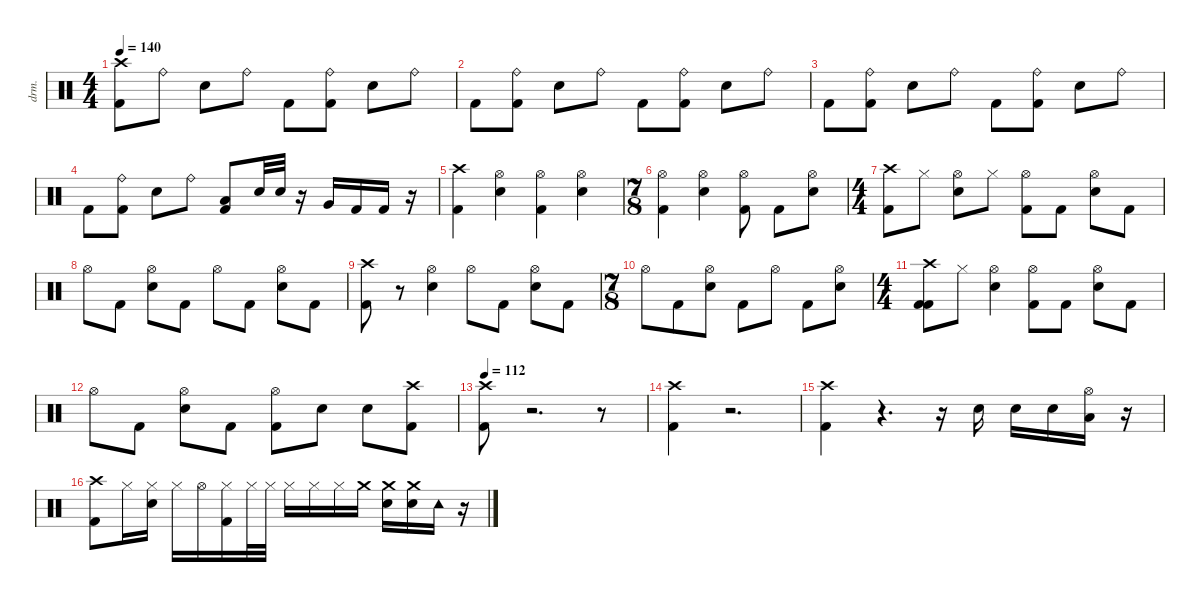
\defaultSystemsLayout 4
\hideDynamics
\bracketExtendMode nobrackets
\otherSystemsTrackNameOrientation horizontal
\track ("Drums" "drm.") {instrument percussion}
\staff {score}
\articulation defaults
\ts (4 4)
\beaming (8 2 2 2 2)
\tempo 140
\clef neutral
\ks c
("Kick (hit) 2" "Crash high (hit)").8{dy f beam Down} "Ride (bell)".8{beam Down} "Snare (hit) 2".8{beam Down} "Ride (bell)".8{beam Down} "Kick (hit) 2".8{beam Down} ("Ride (bell)" "Kick (hit) 2").8{beam Down} "Snare (hit) 2".8{beam Down} "Ride (bell)".8{beam Down} |
"Kick (hit) 2".8{beam Down} ("Ride (bell)" "Kick (hit) 2").8{beam Down} "Snare (hit) 2".8{beam Down} "Ride (bell)".8{beam Down} "Kick (hit) 2".8{beam Down} ("Ride (bell)" "Kick (hit) 2").8{beam Down} "Snare (hit) 2".8{beam Down} "Ride (bell)".8{beam Down} |
"Kick (hit) 2".8{beam Down} ("Kick (hit) 2" "Ride (bell)").8{beam Down} "Snare (hit) 2".8{beam Down} "Ride (bell)".8{beam Down} "Kick (hit) 2".8{beam Down} ("Ride (bell)" "Kick (hit) 2").8{beam Down} "Snare (hit) 2".8{beam Down} "Ride (bell)".8{beam Down} |
"Kick (hit) 2".8{beam Down} ("Kick (hit) 2" "Ride (bell)").8{beam Down} "Snare (hit) 2".8{beam Down} "Ride (bell)".8{beam Down} ("Low Tom (hit)" "Kick (hit) 2").8{beam Up} "Snare (hit) 2".32{beam Up} "Snare (hit) 2".32{beam Up} r.16{beam Up} "Very Low Tom (hit)".16{dy mp beam Up} "Kick (hit) 2".16{dy f beam Up} "Kick (hit) 2".16{beam Up} r.16{beam Up} |
("Crash high (hit)" "Kick (hit) 2").4{beam Down} ("Snare (hit) 2" "Hi-Hat (open)").4{beam Down} ("Kick (hit) 2" "Hi-Hat (open)").4{beam Down} ("Snare (hit) 2" "Hi-Hat (open)").4{beam Down} |
\ts (7 8)
\beaming (8 3 2 2)
("Kick (hit) 2" "Hi-Hat (open)").4{beam Down} ("Snare (hit) 2" "Hi-Hat (open)").4{beam Down} ("Hi-Hat (open)" "Kick (hit) 2").8{beam Down} "Kick (hit) 2".8{beam Down} ("Snare (hit) 2" "Hi-Hat (open)").8{beam Down} |
\ts (4 4)
\beaming (8 2 2 2 2)
("Kick (hit) 2" "Crash high (hit)").8{beam Down} "Hi-Hat (closed)".8{dy mf beam Down} ("Snare (hit) 2" "Hi-Hat (open)").8{dy f beam Down} "Hi-Hat (closed)".8{dy mf beam Down} ("Kick (hit) 2" "Hi-Hat (open)").8{dy f beam Down} "Kick (hit) 2".8{beam Down} ("Snare (hit) 2" "Hi-Hat (open)").8{beam Down} "Kick (hit) 2".8{beam Down} |
"Hi-Hat (open)".8{beam Down} "Kick (hit) 2".8{beam Down} ("Hi-Hat (open)" "Snare (hit) 2").8{beam Down} "Kick (hit) 2".8{beam Down} "Hi-Hat (open)".8{beam Down} "Kick (hit) 2".8{beam Down} ("Hi-Hat (open)" "Snare (hit) 2").8{beam Down} "Kick (hit) 2".8{beam Down} |
("Crash high (hit)" "Kick (hit) 2").8{beam Down} r.8{beam Down} ("Snare (hit) 2" "Hi-Hat (open)").4{beam Down} "Hi-Hat (open)".8{beam Down} "Kick (hit) 2".8{beam Down} ("Snare (hit) 2" "Hi-Hat (open)").8{beam Down} "Kick (hit) 2".8{beam Down} |
\ts (7 8)
\beaming (8 3 2 2)
"Hi-Hat (open)".8{beam Down} "Kick (hit) 2".8{beam Down} ("Hi-Hat (open)" "Snare (hit) 2").8{beam Down} "Kick (hit) 2".8{beam Down} "Hi-Hat (open)".8{beam Down} "Kick (hit) 2".8{beam Down} ("Snare (hit) 2" "Hi-Hat (open)").8{beam Down} |
\ts (4 4)
\beaming (8 2 2 2 2)
("Kick (hit) 2" "Crash high (hit)" "Kick (hit) 2").8{beam Down} "Hi-Hat (closed)".8{dy mf beam Down} ("Snare (hit) 2" "Hi-Hat (open)").4{dy f beam Down} ("Kick (hit) 2" "Hi-Hat (open)").8{beam Down} "Kick (hit) 2".8{beam Down} ("Snare (hit) 2" "Hi-Hat (open)").8{beam Down} "Kick (hit) 2".8{beam Down} |
"Hi-Hat (open)".8{beam Down} "Kick (hit) 2".8{beam Down} ("Hi-Hat (open)" "Snare (hit) 2").8{beam Down} "Kick (hit) 2".8{beam Down} ("Hi-Hat (open)" "Kick (hit) 2").8{beam Down} "Snare (hit) 2".8{beam Down} "Snare (hit) 2".8{beam Down} ("Kick (hit) 2" "Crash high (hit)").8{dy mf beam Down} |
\tempo 112
("Crash high (hit)" "Kick (hit) 2").8{dy f beam Down} r.2{d beam Down} r.8{beam Down} |
("Crash high (hit)" "Kick (hit) 2").4{beam Down} r.2{d beam Down} |
("Crash high (hit)" "Kick (hit) 2").4{beam Down} r.4{d beam Down} r.16{beam Down} "Snare (hit) 2".16{dy p beam Down} "Snare (hit) 2".16{dy mf beam Down} "Snare (hit) 2".16{dy f beam Down} ("Low Tom (hit)" "Hi-Hat (open)").16{beam Down} r.16{beam Down} |
("Crash high (hit)" "Kick (hit) 2").8{beam Down} "Hi-Hat (closed)".16{dy mf beam Down} ("Snare (hit) 2" "Hi-Hat (closed)").16{dy f beam Down} "Hi-Hat (closed)".16{dy mf beam Down} "Hi-Hat (open)".16{dy f beam Down} ("Kick (hit) 2" "Hi-Hat (closed)").16{beam Down} "Hi-Hat (closed)".32{dy mf beam Down} "Hi-Hat (closed)".32{beam Down} "Hi-Hat (closed)".16{beam Down} "Hi-Hat (closed)".16{beam Down} "Hi-Hat (closed)".16{beam Down} "Crash medium (hit)".16{dy mp beam Down} ("Snare (hit) 2" "Crash medium (hit)").16{dy mf beam Down} ("Snare (hit) 2" "Crash medium (hit)").16{dy f beam Down} "Tambourine (hit)".16{dy mf beam Down} r.16{beam Down}
